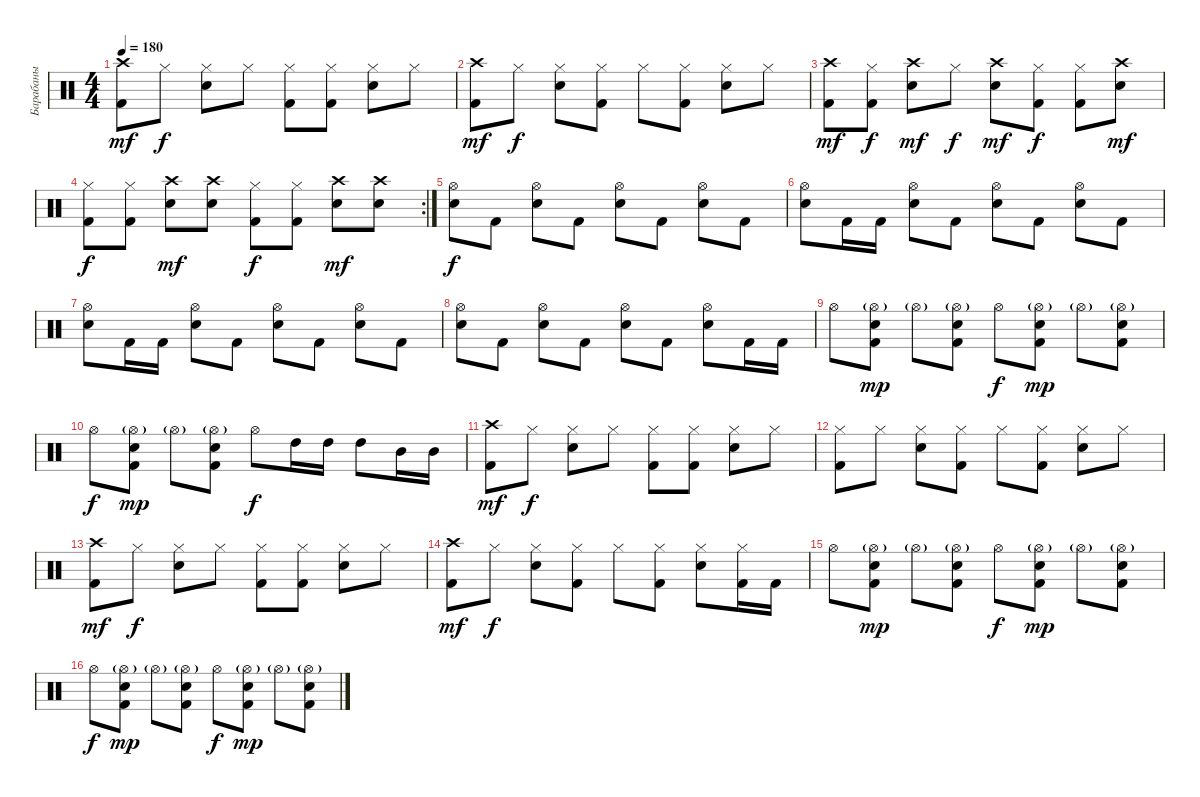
\track ("Барабаны" "Барабаны") {instrument percussion}
\staff {score}
\articulation defaults
\ts (4 4)
\tempo 180
\clef neutral
\ks c
("Crash high (hit)" "Kick (hit) 2").8{dy mf} "Hi-Hat (closed)".8{dy f} ("Hi-Hat (closed)" "Snare (hit) 2").8 "Hi-Hat (closed)".8 ("Hi-Hat (closed)" "Kick (hit) 2").8 ("Hi-Hat (closed)" "Kick (hit) 2").8 ("Hi-Hat (closed)" "Snare (hit) 2").8 "Hi-Hat (closed)".8 |
("Crash high (hit)" "Kick (hit) 2").8{dy mf} "Hi-Hat (closed)".8{dy f} ("Hi-Hat (closed)" "Snare (hit) 2").8 ("Hi-Hat (closed)" "Kick (hit) 2").8 "Hi-Hat (closed)".8 ("Hi-Hat (closed)" "Kick (hit) 2").8 ("Hi-Hat (closed)" "Snare (hit) 2").8 "Hi-Hat (closed)".8 |
("Crash high (hit)" "Kick (hit) 2").8{dy mf} ("Hi-Hat (closed)" "Kick (hit) 2").8{dy f} ("Crash high (hit)" "Snare (hit) 2").8{dy mf} "Hi-Hat (closed)".8{dy f} ("Crash high (hit)" "Snare (hit) 2").8{dy mf} ("Hi-Hat (closed)" "Kick (hit) 2").8{dy f} ("Hi-Hat (closed)" "Kick (hit) 2").8 ("Crash high (hit)" "Snare (hit) 2").8{dy mf} |
\rc 2
("Hi-Hat (closed)" "Kick (hit) 2").8{dy f} ("Hi-Hat (closed)" "Kick (hit) 2").8 ("Crash high (hit)" "Snare (hit) 2").8{dy mf} ("Crash high (hit)" "Snare (hit) 2").8 ("Hi-Hat (closed)" "Kick (hit) 2").8{dy f} ("Hi-Hat (closed)" "Kick (hit) 2").8 ("Crash high (hit)" "Snare (hit) 2").8{dy mf} ("Crash high (hit)" "Snare (hit) 2").8 |
("Hi-Hat (open)" "Snare (hit) 2").8{dy f} "Kick (hit) 2".8 ("Hi-Hat (open)" "Snare (hit) 2").8 "Kick (hit) 2".8 ("Hi-Hat (open)" "Snare (hit) 2").8 "Kick (hit) 2".8 ("Hi-Hat (open)" "Snare (hit) 2").8 "Kick (hit) 2".8 |
("Hi-Hat (open)" "Snare (hit) 2").8 "Kick (hit) 2".16 "Kick (hit) 2".16 ("Hi-Hat (open)" "Snare (hit) 2").8 "Kick (hit) 2".8 ("Hi-Hat (open)" "Snare (hit) 2").8 "Kick (hit) 2".8 ("Hi-Hat (open)" "Snare (hit) 2").8 "Kick (hit) 2".8 |
("Hi-Hat (open)" "Snare (hit) 2").8 "Kick (hit) 2".16 "Kick (hit) 2".16 ("Hi-Hat (open)" "Snare (hit) 2").8 "Kick (hit) 2".8 ("Hi-Hat (open)" "Snare (hit) 2").8 "Kick (hit) 2".8 ("Hi-Hat (open)" "Snare (hit) 2").8 "Kick (hit) 2".8 |
("Hi-Hat (open)" "Snare (hit) 2").8 "Kick (hit) 2".8 ("Hi-Hat (open)" "Snare (hit) 2").8 "Kick (hit) 2".8 ("Hi-Hat (open)" "Snare (hit) 2").8 "Kick (hit) 2".8 ("Hi-Hat (open)" "Snare (hit) 2").8 "Kick (hit) 2".16 "Kick (hit) 2".16 |
"Hi-Hat (open)".8 ("Hi-Hat (open)"{g} "Snare (hit) 2" "Kick (hit) 2").8{dy mp} "Hi-Hat (open)"{g}.8 ("Hi-Hat (open)"{g} "Snare (hit) 2" "Kick (hit) 2").8 "Hi-Hat (open)".8{dy f} ("Hi-Hat (open)"{g} "Snare (hit) 2" "Kick (hit) 2").8{dy mp} "Hi-Hat (open)"{g}.8 ("Hi-Hat (open)"{g} "Snare (hit) 2" "Kick (hit) 2").8 |
"Hi-Hat (open)".8{dy f} ("Hi-Hat (open)"{g} "Snare (hit) 2" "Kick (hit) 2").8{dy mp} "Hi-Hat (open)"{g}.8 ("Hi-Hat (open)"{g} "Snare (hit) 2" "Kick (hit) 2").8 "Hi-Hat (open)".8{dy f} "High Tom (hit)".16 "High Tom (hit)".16 "High Tom (hit)".8 "Mid Tom (hit)".16 "Mid Tom (hit)".16 |
("Crash high (hit)" "Kick (hit) 2").8{dy mf} "Hi-Hat (closed)".8{dy f} ("Hi-Hat (closed)" "Snare (hit) 2").8 "Hi-Hat (closed)".8 ("Hi-Hat (closed)" "Kick (hit) 2").8 ("Hi-Hat (closed)" "Kick (hit) 2").8 ("Hi-Hat (closed)" "Snare (hit) 2").8 "Hi-Hat (closed)".8 |
("Hi-Hat (closed)" "Kick (hit) 2").8 "Hi-Hat (closed)".8 ("Hi-Hat (closed)" "Snare (hit) 2").8 ("Hi-Hat (closed)" "Kick (hit) 2").8 "Hi-Hat (closed)".8 ("Hi-Hat (closed)" "Kick (hit) 2").8 ("Hi-Hat (closed)" "Snare (hit) 2").8 "Hi-Hat (closed)".8 |
("Crash high (hit)" "Kick (hit) 2").8{dy mf} "Hi-Hat (closed)".8{dy f} ("Hi-Hat (closed)" "Snare (hit) 2").8 "Hi-Hat (closed)".8 ("Hi-Hat (closed)" "Kick (hit) 2").8 ("Hi-Hat (closed)" "Kick (hit) 2").8 ("Hi-Hat (closed)" "Snare (hit) 2").8 "Hi-Hat (closed)".8 |
("Crash high (hit)" "Kick (hit) 2").8{dy mf} "Hi-Hat (closed)".8{dy f} ("Hi-Hat (closed)" "Snare (hit) 2").8 ("Hi-Hat (closed)" "Kick (hit) 2").8 "Hi-Hat (closed)".8 ("Hi-Hat (closed)" "Kick (hit) 2").8 ("Hi-Hat (closed)" "Snare (hit) 2").8 ("Hi-Hat (closed)" "Kick (hit) 2").16 "Kick (hit) 2".16 |
"Hi-Hat (open)".8 ("Hi-Hat (open)"{g} "Snare (hit) 2" "Kick (hit) 2").8{dy mp} "Hi-Hat (open)"{g}.8 ("Hi-Hat (open)"{g} "Snare (hit) 2" "Kick (hit) 2").8 "Hi-Hat (open)".8{dy f} ("Hi-Hat (open)"{g} "Snare (hit) 2" "Kick (hit) 2").8{dy mp} "Hi-Hat (open)"{g}.8 ("Hi-Hat (open)"{g} "Snare (hit) 2" "Kick (hit) 2").8 |
"Hi-Hat (open)".8{dy f} ("Hi-Hat (open)"{g} "Snare (hit) 2" "Kick (hit) 2").8{dy mp} "Hi-Hat (open)"{g}.8 ("Hi-Hat (open)"{g} "Snare (hit) 2" "Kick (hit) 2").8 "Hi-Hat (open)".8{dy f} ("Hi-Hat (open)"{g} "Snare (hit) 2" "Kick (hit) 2").8{dy mp} "Hi-Hat (open)"{g}.8 ("Hi-Hat (open)"{g} "Snare (hit) 2" "Kick (hit) 2").8
